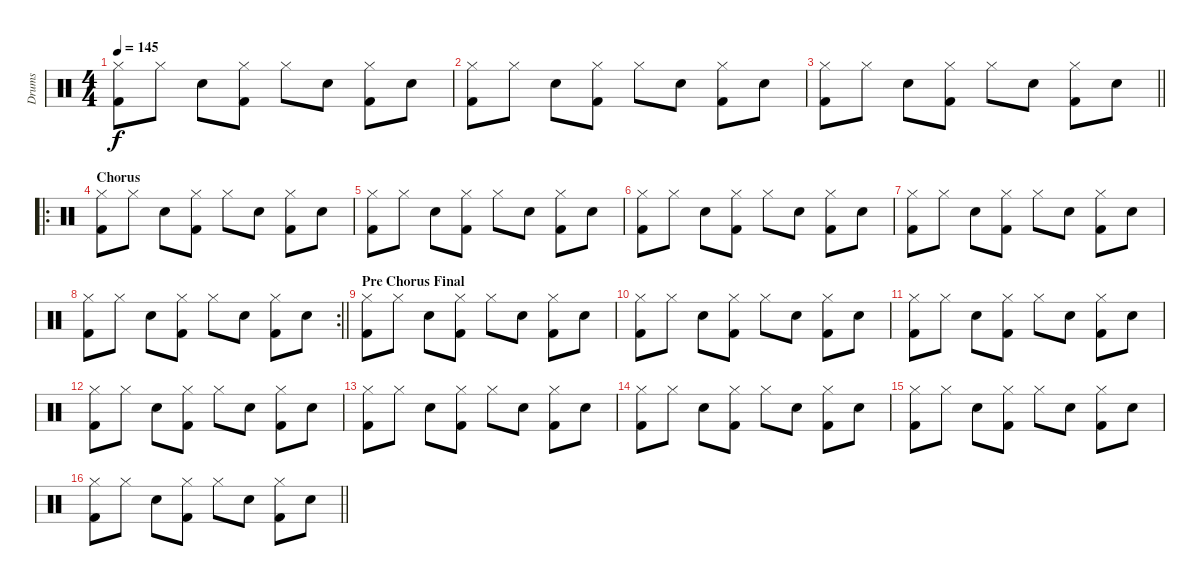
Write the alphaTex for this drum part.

\track ("Drums" "Drums") {instrument percussion}
\staff {score}
\articulation defaults
\ts (4 4)
\tempo 145
\clef neutral
\ks c
("Hi-Hat (closed)" "Kick (hit) 2").8{dy f} "Hi-Hat (closed)".8 "Snare (hit) 2".8 ("Hi-Hat (closed)" "Kick (hit) 2").8 "Hi-Hat (closed)".8 "Snare (hit) 2".8 ("Hi-Hat (closed)" "Kick (hit) 2").8 "Snare (hit) 2".8 |
("Hi-Hat (closed)" "Kick (hit) 2").8 "Hi-Hat (closed)".8 "Snare (hit) 2".8 ("Hi-Hat (closed)" "Kick (hit) 2").8 "Hi-Hat (closed)".8 "Snare (hit) 2".8 ("Hi-Hat (closed)" "Kick (hit) 2").8 "Snare (hit) 2".8 |
\barLineRight lightlight
("Hi-Hat (closed)" "Kick (hit) 2").8 "Hi-Hat (closed)".8 "Snare (hit) 2".8 ("Hi-Hat (closed)" "Kick (hit) 2").8 "Hi-Hat (closed)".8 "Snare (hit) 2".8 ("Hi-Hat (closed)" "Kick (hit) 2").8 "Snare (hit) 2".8 |
\ro
\section ("" "Chorus")
("Hi-Hat (closed)" "Kick (hit) 2").8 "Hi-Hat (closed)".8 "Snare (hit) 2".8 ("Hi-Hat (closed)" "Kick (hit) 2").8 "Hi-Hat (closed)".8 "Snare (hit) 2".8 ("Hi-Hat (closed)" "Kick (hit) 2").8 "Snare (hit) 2".8 |
("Hi-Hat (closed)" "Kick (hit) 2").8 "Hi-Hat (closed)".8 "Snare (hit) 2".8 ("Hi-Hat (closed)" "Kick (hit) 2").8 "Hi-Hat (closed)".8 "Snare (hit) 2".8 ("Hi-Hat (closed)" "Kick (hit) 2").8 "Snare (hit) 2".8 |
("Hi-Hat (closed)" "Kick (hit) 2").8 "Hi-Hat (closed)".8 "Snare (hit) 2".8 ("Hi-Hat (closed)" "Kick (hit) 2").8 "Hi-Hat (closed)".8 "Snare (hit) 2".8 ("Hi-Hat (closed)" "Kick (hit) 2").8 "Snare (hit) 2".8 |
("Hi-Hat (closed)" "Kick (hit) 2").8 "Hi-Hat (closed)".8 "Snare (hit) 2".8 ("Hi-Hat (closed)" "Kick (hit) 2").8 "Hi-Hat (closed)".8 "Snare (hit) 2".8 ("Hi-Hat (closed)" "Kick (hit) 2").8 "Snare (hit) 2".8 |
\rc 2
\barLineRight lightlight
("Hi-Hat (closed)" "Kick (hit) 2").8 "Hi-Hat (closed)".8 "Snare (hit) 2".8 ("Hi-Hat (closed)" "Kick (hit) 2").8 "Hi-Hat (closed)".8 "Snare (hit) 2".8 ("Hi-Hat (closed)" "Kick (hit) 2").8 "Snare (hit) 2".8 |
\section ("" "Pre Chorus Final")
("Hi-Hat (closed)" "Kick (hit) 2").8 "Hi-Hat (closed)".8 "Snare (hit) 2".8 ("Hi-Hat (closed)" "Kick (hit) 2").8 "Hi-Hat (closed)".8 "Snare (hit) 2".8 ("Hi-Hat (closed)" "Kick (hit) 2").8 "Snare (hit) 2".8 |
("Hi-Hat (closed)" "Kick (hit) 2").8 "Hi-Hat (closed)".8 "Snare (hit) 2".8 ("Hi-Hat (closed)" "Kick (hit) 2").8 "Hi-Hat (closed)".8 "Snare (hit) 2".8 ("Hi-Hat (closed)" "Kick (hit) 2").8 "Snare (hit) 2".8 |
("Hi-Hat (closed)" "Kick (hit) 2").8 "Hi-Hat (closed)".8 "Snare (hit) 2".8 ("Hi-Hat (closed)" "Kick (hit) 2").8 "Hi-Hat (closed)".8 "Snare (hit) 2".8 ("Hi-Hat (closed)" "Kick (hit) 2").8 "Snare (hit) 2".8 |
("Hi-Hat (closed)" "Kick (hit) 2").8 "Hi-Hat (closed)".8 "Snare (hit) 2".8 ("Hi-Hat (closed)" "Kick (hit) 2").8 "Hi-Hat (closed)".8 "Snare (hit) 2".8 ("Hi-Hat (closed)" "Kick (hit) 2").8 "Snare (hit) 2".8 |
("Hi-Hat (closed)" "Kick (hit) 2").8 "Hi-Hat (closed)".8 "Snare (hit) 2".8 ("Hi-Hat (closed)" "Kick (hit) 2").8 "Hi-Hat (closed)".8 "Snare (hit) 2".8 ("Hi-Hat (closed)" "Kick (hit) 2").8 "Snare (hit) 2".8 |
("Hi-Hat (closed)" "Kick (hit) 2").8 "Hi-Hat (closed)".8 "Snare (hit) 2".8 ("Hi-Hat (closed)" "Kick (hit) 2").8 "Hi-Hat (closed)".8 "Snare (hit) 2".8 ("Hi-Hat (closed)" "Kick (hit) 2").8 "Snare (hit) 2".8 |
("Hi-Hat (closed)" "Kick (hit) 2").8 "Hi-Hat (closed)".8 "Snare (hit) 2".8 ("Hi-Hat (closed)" "Kick (hit) 2").8 "Hi-Hat (closed)".8 "Snare (hit) 2".8 ("Hi-Hat (closed)" "Kick (hit) 2").8 "Snare (hit) 2".8 |
\barLineRight lightlight
("Hi-Hat (closed)" "Kick (hit) 2").8 "Hi-Hat (closed)".8 "Snare (hit) 2".8 ("Hi-Hat (closed)" "Kick (hit) 2").8 "Hi-Hat (closed)".8 "Snare (hit) 2".8 ("Hi-Hat (closed)" "Kick (hit) 2").8 "Snare (hit) 2".8
